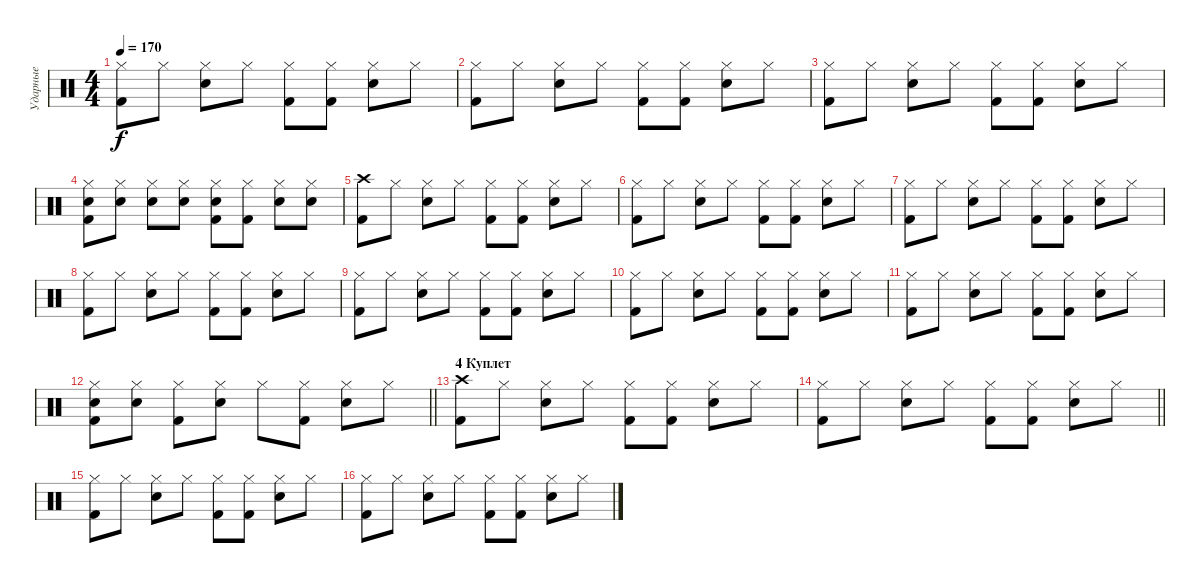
\track ("Ударные" "Ударные") {instrument percussion}
\staff {score}
\articulation defaults
\ts (4 4)
\tempo 170
\clef neutral
\ks c
("Hi-Hat (closed)" "Kick (hit) 2").8{dy f} "Hi-Hat (closed)".8 ("Hi-Hat (closed)" "Snare (hit) 2").8 "Hi-Hat (closed)".8 ("Hi-Hat (closed)" "Kick (hit) 2").8 ("Hi-Hat (closed)" "Kick (hit) 2").8 ("Hi-Hat (closed)" "Snare (hit) 2").8 "Hi-Hat (closed)".8 |
("Hi-Hat (closed)" "Kick (hit) 2").8 "Hi-Hat (closed)".8 ("Hi-Hat (closed)" "Snare (hit) 2").8 "Hi-Hat (closed)".8 ("Hi-Hat (closed)" "Kick (hit) 2").8 ("Hi-Hat (closed)" "Kick (hit) 2").8 ("Hi-Hat (closed)" "Snare (hit) 2").8 "Hi-Hat (closed)".8 |
("Hi-Hat (closed)" "Kick (hit) 2").8 "Hi-Hat (closed)".8 ("Hi-Hat (closed)" "Snare (hit) 2").8 "Hi-Hat (closed)".8 ("Hi-Hat (closed)" "Kick (hit) 2").8 ("Hi-Hat (closed)" "Kick (hit) 2").8 ("Hi-Hat (closed)" "Snare (hit) 2").8 "Hi-Hat (closed)".8 |
("Hi-Hat (closed)" "Snare (hit) 2" "Kick (hit) 2").8 ("Hi-Hat (closed)" "Snare (hit) 2").8 ("Hi-Hat (closed)" "Snare (hit) 2").8 ("Hi-Hat (closed)" "Snare (hit) 2").8 ("Hi-Hat (closed)" "Snare (hit) 2" "Kick (hit) 2").8 ("Hi-Hat (closed)" "Kick (hit) 2").8 ("Hi-Hat (closed)" "Snare (hit) 2").8 ("Hi-Hat (closed)" "Snare (hit) 2").8 |
("Crash high (hit)" "Kick (hit) 2").8 "Hi-Hat (closed)".8 ("Hi-Hat (closed)" "Snare (hit) 2").8 "Hi-Hat (closed)".8 ("Hi-Hat (closed)" "Kick (hit) 2").8 ("Hi-Hat (closed)" "Kick (hit) 2").8 ("Hi-Hat (closed)" "Snare (hit) 2").8 "Hi-Hat (closed)".8 |
("Hi-Hat (closed)" "Kick (hit) 2").8 "Hi-Hat (closed)".8 ("Hi-Hat (closed)" "Snare (hit) 2").8 "Hi-Hat (closed)".8 ("Hi-Hat (closed)" "Kick (hit) 2").8 ("Hi-Hat (closed)" "Kick (hit) 2").8 ("Hi-Hat (closed)" "Snare (hit) 2").8 "Hi-Hat (closed)".8 |
("Hi-Hat (closed)" "Kick (hit) 2").8 "Hi-Hat (closed)".8 ("Hi-Hat (closed)" "Snare (hit) 2").8 "Hi-Hat (closed)".8 ("Hi-Hat (closed)" "Kick (hit) 2").8 ("Hi-Hat (closed)" "Kick (hit) 2").8 ("Hi-Hat (closed)" "Snare (hit) 2").8 "Hi-Hat (closed)".8 |
("Hi-Hat (closed)" "Kick (hit) 2").8 "Hi-Hat (closed)".8 ("Hi-Hat (closed)" "Snare (hit) 2").8 "Hi-Hat (closed)".8 ("Hi-Hat (closed)" "Kick (hit) 2").8 ("Hi-Hat (closed)" "Kick (hit) 2").8 ("Hi-Hat (closed)" "Snare (hit) 2").8 "Hi-Hat (closed)".8 |
("Hi-Hat (closed)" "Kick (hit) 2").8 "Hi-Hat (closed)".8 ("Hi-Hat (closed)" "Snare (hit) 2").8 "Hi-Hat (closed)".8 ("Hi-Hat (closed)" "Kick (hit) 2").8 ("Hi-Hat (closed)" "Kick (hit) 2").8 ("Hi-Hat (closed)" "Snare (hit) 2").8 "Hi-Hat (closed)".8 |
("Hi-Hat (closed)" "Kick (hit) 2").8 "Hi-Hat (closed)".8 ("Hi-Hat (closed)" "Snare (hit) 2").8 "Hi-Hat (closed)".8 ("Hi-Hat (closed)" "Kick (hit) 2").8 ("Hi-Hat (closed)" "Kick (hit) 2").8 ("Hi-Hat (closed)" "Snare (hit) 2").8 "Hi-Hat (closed)".8 |
("Hi-Hat (closed)" "Kick (hit) 2").8 "Hi-Hat (closed)".8 ("Hi-Hat (closed)" "Snare (hit) 2").8 "Hi-Hat (closed)".8 ("Hi-Hat (closed)" "Kick (hit) 2").8 ("Hi-Hat (closed)" "Kick (hit) 2").8 ("Hi-Hat (closed)" "Snare (hit) 2").8 "Hi-Hat (closed)".8 |
\barLineRight lightlight
("Hi-Hat (closed)" "Snare (hit) 2" "Kick (hit) 2").8 ("Hi-Hat (closed)" "Snare (hit) 2").8 ("Hi-Hat (closed)" "Kick (hit) 2").8 ("Hi-Hat (closed)" "Snare (hit) 2").8 "Hi-Hat (closed)".8 ("Hi-Hat (closed)" "Kick (hit) 2").8 ("Hi-Hat (closed)" "Snare (hit) 2").8 "Hi-Hat (closed)".8 |
\section ("" "4 Куплет")
("Crash high (hit)" "Kick (hit) 2").8 "Hi-Hat (closed)".8 ("Hi-Hat (closed)" "Snare (hit) 2").8 "Hi-Hat (closed)".8 ("Hi-Hat (closed)" "Kick (hit) 2").8 ("Hi-Hat (closed)" "Kick (hit) 2").8 ("Hi-Hat (closed)" "Snare (hit) 2").8 "Hi-Hat (closed)".8 |
\barLineRight lightlight
("Hi-Hat (closed)" "Kick (hit) 2").8 "Hi-Hat (closed)".8 ("Hi-Hat (closed)" "Snare (hit) 2").8 "Hi-Hat (closed)".8 ("Hi-Hat (closed)" "Kick (hit) 2").8 ("Hi-Hat (closed)" "Kick (hit) 2").8 ("Hi-Hat (closed)" "Snare (hit) 2").8 "Hi-Hat (closed)".8 |
\section ("" "")
("Hi-Hat (closed)" "Kick (hit) 2").8 "Hi-Hat (closed)".8 ("Hi-Hat (closed)" "Snare (hit) 2").8 "Hi-Hat (closed)".8 ("Hi-Hat (closed)" "Kick (hit) 2").8 ("Hi-Hat (closed)" "Kick (hit) 2").8 ("Hi-Hat (closed)" "Snare (hit) 2").8 "Hi-Hat (closed)".8 |
("Hi-Hat (closed)" "Kick (hit) 2").8 "Hi-Hat (closed)".8 ("Hi-Hat (closed)" "Snare (hit) 2").8 "Hi-Hat (closed)".8 ("Hi-Hat (closed)" "Kick (hit) 2").8 ("Hi-Hat (closed)" "Kick (hit) 2").8 ("Hi-Hat (closed)" "Snare (hit) 2").8 "Hi-Hat (closed)".8
